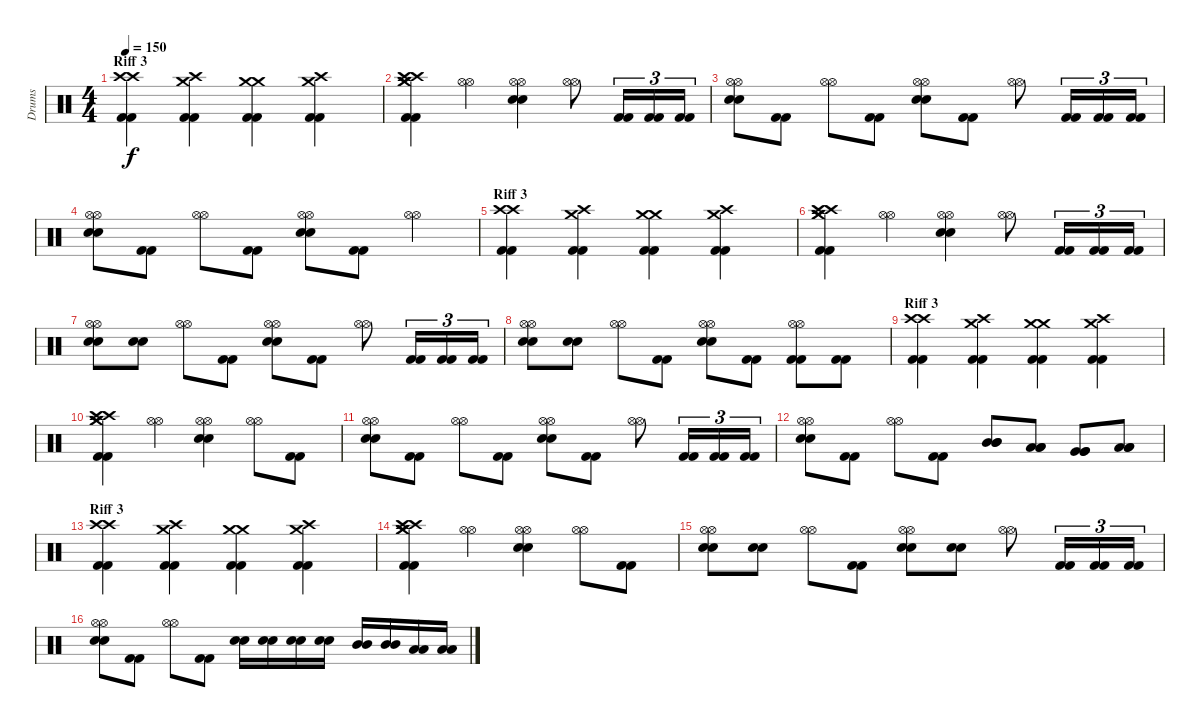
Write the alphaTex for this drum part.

\track ("Drums" "Drums") {instrument percussion}
\staff {score}
\articulation defaults
\ts (4 4)
\section ("" "Riff 3")
\tempo 150
\clef neutral
\ks c
("Crash high (hit)" "Crash high (hit)" "Kick (hit) 2" "Kick (hit) 2").4{dy f} ("Crash high (hit)" "Crash medium (hit)" "Kick (hit) 2" "Kick (hit) 2").4 ("Crash medium (hit)" "Crash medium (hit)" "Kick (hit) 2" "Kick (hit) 2").4 ("Crash medium (hit)" "Crash high (hit)" "Kick (hit) 2" "Kick (hit) 2").4 |
("Crash high (hit)" "Crash high (hit)" "Crash medium (hit)" "Crash medium (hit)" "Kick (hit) 2" "Kick (hit) 2").4 ("Hi-Hat (open)" "Hi-Hat (open)").4 ("Hi-Hat (open)" "Hi-Hat (open)" "Electric Snare (hit)" "Electric Snare (hit)").4 ("Hi-Hat (open)" "Hi-Hat (open)").8 ("Kick (hit) 2" "Kick (hit) 2").16{tu (3 2)} ("Kick (hit) 2" "Kick (hit) 2").16{tu (3 2)} ("Kick (hit) 2" "Kick (hit) 2").16{tu (3 2)} |
("Hi-Hat (open)" "Hi-Hat (open)" "Electric Snare (hit)" "Electric Snare (hit)").8 ("Kick (hit) 2" "Kick (hit) 2").8 ("Hi-Hat (open)" "Hi-Hat (open)").8 ("Kick (hit) 2" "Kick (hit) 2").8 ("Hi-Hat (open)" "Hi-Hat (open)" "Electric Snare (hit)" "Electric Snare (hit)").8 ("Kick (hit) 2" "Kick (hit) 2").8 ("Hi-Hat (open)" "Hi-Hat (open)").8 ("Kick (hit) 2" "Kick (hit) 2").16{tu (3 2)} ("Kick (hit) 2" "Kick (hit) 2").16{tu (3 2)} ("Kick (hit) 2" "Kick (hit) 2").16{tu (3 2)} |
("Hi-Hat (open)" "Hi-Hat (open)" "Electric Snare (hit)" "Electric Snare (hit)").8 ("Kick (hit) 2" "Kick (hit) 2").8 ("Hi-Hat (open)" "Hi-Hat (open)").8 ("Kick (hit) 2" "Kick (hit) 2").8 ("Hi-Hat (open)" "Hi-Hat (open)" "Electric Snare (hit)" "Electric Snare (hit)").8 ("Kick (hit) 2" "Kick (hit) 2").8 ("Hi-Hat (open)" "Hi-Hat (open)").4 |
\section ("" "Riff 3")
("Crash high (hit)" "Crash high (hit)" "Kick (hit) 2" "Kick (hit) 2").4 ("Crash high (hit)" "Crash medium (hit)" "Kick (hit) 2" "Kick (hit) 2").4 ("Crash medium (hit)" "Crash medium (hit)" "Kick (hit) 2" "Kick (hit) 2").4 ("Crash medium (hit)" "Crash high (hit)" "Kick (hit) 2" "Kick (hit) 2").4 |
("Crash high (hit)" "Crash high (hit)" "Crash medium (hit)" "Crash medium (hit)" "Kick (hit) 2" "Kick (hit) 2").4 ("Hi-Hat (open)" "Hi-Hat (open)").4 ("Hi-Hat (open)" "Hi-Hat (open)" "Electric Snare (hit)" "Electric Snare (hit)").4 ("Hi-Hat (open)" "Hi-Hat (open)").8 ("Kick (hit) 2" "Kick (hit) 2").16{tu (3 2)} ("Kick (hit) 2" "Kick (hit) 2").16{tu (3 2)} ("Kick (hit) 2" "Kick (hit) 2").16{tu (3 2)} |
("Hi-Hat (open)" "Hi-Hat (open)" "Electric Snare (hit)" "Electric Snare (hit)").8 ("Electric Snare (hit)" "Electric Snare (hit)").8 ("Hi-Hat (open)" "Hi-Hat (open)").8 ("Kick (hit) 2" "Kick (hit) 2").8 ("Hi-Hat (open)" "Hi-Hat (open)" "Electric Snare (hit)" "Electric Snare (hit)").8 ("Kick (hit) 2" "Kick (hit) 2").8 ("Hi-Hat (open)" "Hi-Hat (open)").8 ("Kick (hit) 2" "Kick (hit) 2").16{tu (3 2)} ("Kick (hit) 2" "Kick (hit) 2").16{tu (3 2)} ("Kick (hit) 2" "Kick (hit) 2").16{tu (3 2)} |
("Hi-Hat (open)" "Hi-Hat (open)" "Electric Snare (hit)" "Electric Snare (hit)").8 ("Electric Snare (hit)" "Electric Snare (hit)").8 ("Hi-Hat (open)" "Hi-Hat (open)").8 ("Kick (hit) 2" "Kick (hit) 2").8 ("Hi-Hat (open)" "Hi-Hat (open)" "Electric Snare (hit)" "Electric Snare (hit)").8 ("Kick (hit) 2" "Kick (hit) 2").8 ("Hi-Hat (open)" "Hi-Hat (open)" "Kick (hit) 2" "Kick (hit) 2").8 ("Kick (hit) 2" "Kick (hit) 2").8 |
\section ("" "Riff 3")
("Crash high (hit)" "Crash high (hit)" "Kick (hit) 2" "Kick (hit) 2").4 ("Crash high (hit)" "Crash medium (hit)" "Kick (hit) 2" "Kick (hit) 2").4 ("Crash medium (hit)" "Crash medium (hit)" "Kick (hit) 2" "Kick (hit) 2").4 ("Crash medium (hit)" "Crash high (hit)" "Kick (hit) 2" "Kick (hit) 2").4 |
("Crash high (hit)" "Crash high (hit)" "Crash medium (hit)" "Crash medium (hit)" "Kick (hit) 2" "Kick (hit) 2").4 ("Hi-Hat (open)" "Hi-Hat (open)").4 ("Hi-Hat (open)" "Hi-Hat (open)" "Electric Snare (hit)" "Electric Snare (hit)").4 ("Hi-Hat (open)" "Hi-Hat (open)").8 ("Kick (hit) 2" "Kick (hit) 2").8 |
("Hi-Hat (open)" "Hi-Hat (open)" "Electric Snare (hit)" "Electric Snare (hit)").8 ("Kick (hit) 2" "Kick (hit) 2").8 ("Hi-Hat (open)" "Hi-Hat (open)").8 ("Kick (hit) 2" "Kick (hit) 2").8 ("Hi-Hat (open)" "Hi-Hat (open)" "Electric Snare (hit)" "Electric Snare (hit)").8 ("Kick (hit) 2" "Kick (hit) 2").8 ("Hi-Hat (open)" "Hi-Hat (open)").8 ("Kick (hit) 2" "Kick (hit) 2").16{tu (3 2)} ("Kick (hit) 2" "Kick (hit) 2").16{tu (3 2)} ("Kick (hit) 2" "Kick (hit) 2").16{tu (3 2)} |
("Hi-Hat (open)" "Hi-Hat (open)" "Electric Snare (hit)" "Electric Snare (hit)").8 ("Kick (hit) 2" "Kick (hit) 2").8 ("Hi-Hat (open)" "Hi-Hat (open)").8 ("Kick (hit) 2" "Kick (hit) 2").8 ("Mid Tom (hit)" "Mid Tom (hit)" "Mid Tom (hit)").8 ("Low Tom (hit)" "Low Tom (hit)" "Low Tom (hit)").8 ("Very Low Tom (hit)" "Very Low Tom (hit)" "Very Low Tom (hit)").8 ("Low Floor Tom (hit)" "Low Floor Tom (hit)" "Low Floor Tom (hit)").8 |
\section ("" "Riff 3")
("Crash high (hit)" "Crash high (hit)" "Kick (hit) 2" "Kick (hit) 2").4 ("Crash high (hit)" "Crash medium (hit)" "Kick (hit) 2" "Kick (hit) 2").4 ("Crash medium (hit)" "Crash medium (hit)" "Kick (hit) 2" "Kick (hit) 2").4 ("Crash medium (hit)" "Crash high (hit)" "Kick (hit) 2" "Kick (hit) 2").4 |
("Crash high (hit)" "Crash high (hit)" "Crash medium (hit)" "Crash medium (hit)" "Kick (hit) 2" "Kick (hit) 2").4 ("Hi-Hat (open)" "Hi-Hat (open)").4 ("Hi-Hat (open)" "Hi-Hat (open)" "Electric Snare (hit)" "Electric Snare (hit)").4 ("Hi-Hat (open)" "Hi-Hat (open)").8 ("Kick (hit) 2" "Kick (hit) 2").8 |
("Hi-Hat (open)" "Hi-Hat (open)" "Electric Snare (hit)" "Electric Snare (hit)").8 ("Electric Snare (hit)" "Electric Snare (hit)").8 ("Hi-Hat (open)" "Hi-Hat (open)").8 ("Kick (hit) 2" "Kick (hit) 2").8 ("Hi-Hat (open)" "Hi-Hat (open)" "Electric Snare (hit)" "Electric Snare (hit)").8 ("Electric Snare (hit)" "Electric Snare (hit)").8 ("Hi-Hat (open)" "Hi-Hat (open)").8 ("Kick (hit) 2" "Kick (hit) 2").16{tu (3 2)} ("Kick (hit) 2" "Kick (hit) 2").16{tu (3 2)} ("Kick (hit) 2" "Kick (hit) 2").16{tu (3 2)} |
("Hi-Hat (open)" "Hi-Hat (open)" "Electric Snare (hit)" "Electric Snare (hit)").8 ("Kick (hit) 2" "Kick (hit) 2").8 ("Hi-Hat (open)" "Hi-Hat (open)").8 ("Kick (hit) 2" "Kick (hit) 2").8 ("Electric Snare (hit)" "Electric Snare (hit)").16 ("Electric Snare (hit)" "Electric Snare (hit)").16 ("Electric Snare (hit)" "Electric Snare (hit)").16 ("Electric Snare (hit)" "Electric Snare (hit)").16 ("Mid Tom (hit)" "Mid Tom (hit)").16 ("Mid Tom (hit)" "Mid Tom (hit)").16 ("Low Tom (hit)" "Low Tom (hit)").16 ("Low Tom (hit)" "Low Tom (hit)").16
